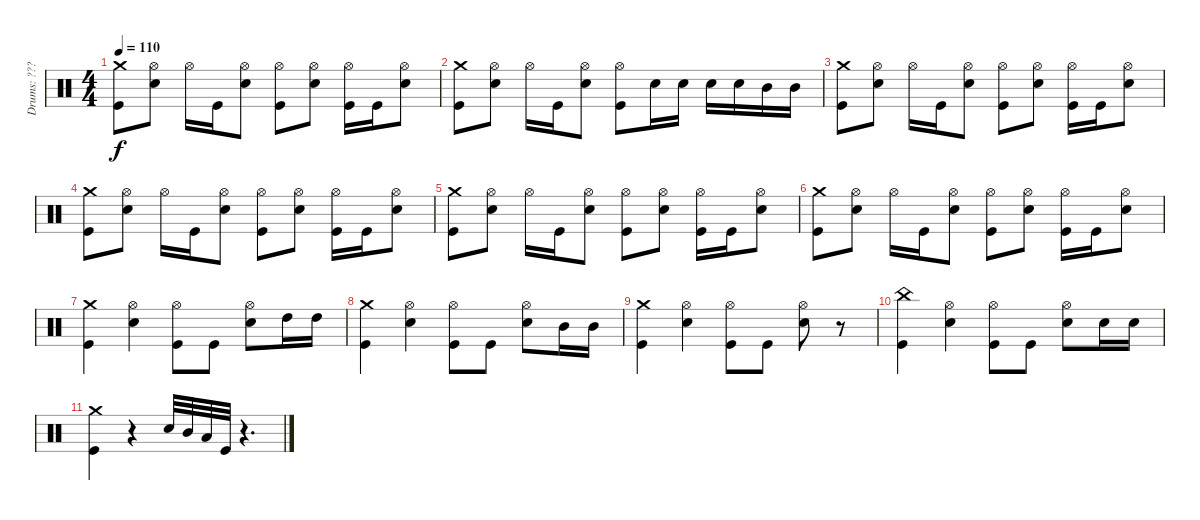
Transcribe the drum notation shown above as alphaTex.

\track ("Drums: ???" "Drums: ???") {instrument percussion}
\staff {score}
\articulation defaults
\ts (4 4)
\tempo 110
\clef neutral
\ks c
("Crash medium (hit)" "Kick (hit)").8{dy f} ("Hi-Hat (open)" "Electric Snare (hit)").8 "Hi-Hat (open)".16 "Kick (hit)".16 ("Hi-Hat (open)" "Electric Snare (hit)").8 ("Hi-Hat (open)" "Kick (hit)").8 ("Hi-Hat (open)" "Electric Snare (hit)").8 ("Hi-Hat (open)" "Kick (hit)").16 "Kick (hit)".16 ("Hi-Hat (open)" "Electric Snare (hit)").8 |
("Crash medium (hit)" "Kick (hit)").8 ("Hi-Hat (open)" "Electric Snare (hit)").8 "Hi-Hat (open)".16 "Kick (hit)".16 ("Hi-Hat (open)" "Electric Snare (hit)").8 ("Hi-Hat (open)" "Kick (hit)").8 "Electric Snare (hit)".16 "Electric Snare (hit)".16 "Electric Snare (hit)".16 "Electric Snare (hit)".16 "Mid Tom (hit)".16 "Mid Tom (hit)".16 |
("Crash medium (hit)" "Kick (hit)").8 ("Hi-Hat (open)" "Electric Snare (hit)").8 "Hi-Hat (open)".16 "Kick (hit)".16 ("Hi-Hat (open)" "Electric Snare (hit)").8 ("Hi-Hat (open)" "Kick (hit)").8 ("Hi-Hat (open)" "Electric Snare (hit)").8 ("Hi-Hat (open)" "Kick (hit)").16 "Kick (hit)".16 ("Hi-Hat (open)" "Electric Snare (hit)").8 |
("Crash medium (hit)" "Kick (hit)").8 ("Hi-Hat (open)" "Electric Snare (hit)").8 "Hi-Hat (open)".16 "Kick (hit)".16 ("Hi-Hat (open)" "Electric Snare (hit)").8 ("Hi-Hat (open)" "Kick (hit)").8 ("Hi-Hat (open)" "Electric Snare (hit)").8 ("Hi-Hat (open)" "Kick (hit)").16 "Kick (hit)".16 ("Hi-Hat (open)" "Electric Snare (hit)").8 |
("Crash medium (hit)" "Kick (hit)").8 ("Hi-Hat (open)" "Electric Snare (hit)").8 "Hi-Hat (open)".16 "Kick (hit)".16 ("Hi-Hat (open)" "Electric Snare (hit)").8 ("Hi-Hat (open)" "Kick (hit)").8 ("Hi-Hat (open)" "Electric Snare (hit)").8 ("Hi-Hat (open)" "Kick (hit)").16 "Kick (hit)".16 ("Hi-Hat (open)" "Electric Snare (hit)").8 |
("Crash medium (hit)" "Kick (hit)").8 ("Hi-Hat (open)" "Electric Snare (hit)").8 "Hi-Hat (open)".16 "Kick (hit)".16 ("Hi-Hat (open)" "Electric Snare (hit)").8 ("Hi-Hat (open)" "Kick (hit)").8 ("Hi-Hat (open)" "Electric Snare (hit)").8 ("Hi-Hat (open)" "Kick (hit)").16 "Kick (hit)".16 ("Hi-Hat (open)" "Electric Snare (hit)").8 |
("Crash medium (hit)" "Kick (hit)").4 ("Electric Snare (hit)" "Hi-Hat (open)").4 ("Kick (hit)" "Hi-Hat (open)").8 "Kick (hit)".8 ("Hi-Hat (open)" "Electric Snare (hit)").8 "High Tom (hit)".16 "High Tom (hit)".16 |
("Crash medium (hit)" "Kick (hit)").4 ("Electric Snare (hit)" "Hi-Hat (open)").4 ("Kick (hit)" "Hi-Hat (open)").8 "Kick (hit)".8 ("Hi-Hat (open)" "Electric Snare (hit)").8 "Mid Tom (hit)".16 "Mid Tom (hit)".16 |
("Crash medium (hit)" "Kick (hit)").4 ("Electric Snare (hit)" "Hi-Hat (open)").4 ("Kick (hit)" "Hi-Hat (open)").8 "Kick (hit)".8 ("Electric Snare (hit)" "Hi-Hat (open)").8 r.8 |
("China (hit)" "Kick (hit)").4 ("Electric Snare (hit)" "Hi-Hat (open)").4 ("Kick (hit)" "Hi-Hat (open)").8 "Kick (hit)".8 ("Electric Snare (hit)" "Hi-Hat (open)").8 "Electric Snare (hit)".16 "Electric Snare (hit)".16 |
("Crash medium (hit)" "Kick (hit)").4 r.4 "Electric Snare (hit)".32 "Mid Tom (hit)".32 "Low Floor Tom (hit)".32 "Kick (hit)".32 r.4{d}
